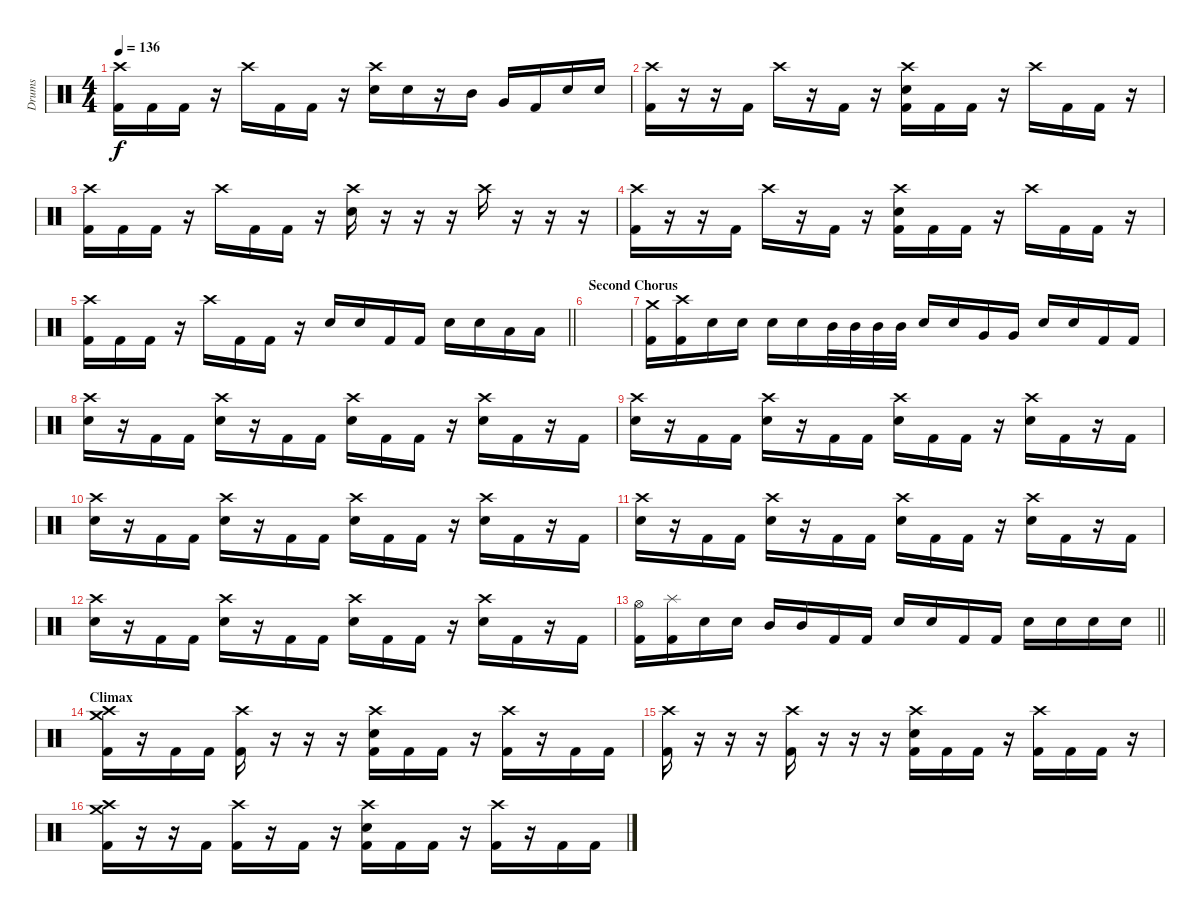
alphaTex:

\track ("Drums" "Drums") {instrument percussion}
\staff {score}
\articulation defaults
\ts (4 4)
\tempo 136
\clef neutral
\ks c
("Crash high (hit)" "Kick (hit) 2").16{dy f} "Kick (hit) 2".16 "Kick (hit) 2".16 r.16 "Crash high (hit)".16 "Kick (hit) 2".16 "Kick (hit) 2".16 r.16 ("Crash high (hit)" "Electric Snare (hit)").16 "Electric Snare (hit)".16 r.16 "Mid Tom (hit)".16 "Very Low Tom (hit)".16 "Kick (hit) 2".16 "Electric Snare (hit)".16 "Electric Snare (hit)".16 |
("Crash high (hit)" "Kick (hit) 2").16 r.16 r.16 "Kick (hit) 2".16 "Crash high (hit)".16 r.16 "Kick (hit) 2".16 r.16 ("Crash high (hit)" "Electric Snare (hit)" "Kick (hit) 2").16 "Kick (hit) 2".16 "Kick (hit) 2".16 r.16 "Crash high (hit)".16 "Kick (hit) 2".16 "Kick (hit) 2".16 r.16 |
("Crash high (hit)" "Kick (hit) 2").16 "Kick (hit) 2".16 "Kick (hit) 2".16 r.16 "Crash high (hit)".16 "Kick (hit) 2".16 "Kick (hit) 2".16 r.16 ("Crash high (hit)" "Electric Snare (hit)").16 r.16 r.16 r.16 "Crash high (hit)".16 r.16 r.16 r.16 |
("Crash high (hit)" "Kick (hit) 2").16 r.16 r.16 "Kick (hit) 2".16 "Crash high (hit)".16 r.16 "Kick (hit) 2".16 r.16 ("Crash high (hit)" "Electric Snare (hit)" "Kick (hit) 2").16 "Kick (hit) 2".16 "Kick (hit) 2".16 r.16 "Crash high (hit)".16 "Kick (hit) 2".16 "Kick (hit) 2".16 r.16 |
\barLineRight lightlight
("Crash high (hit)" "Kick (hit) 2").16 "Kick (hit) 2".16 "Kick (hit) 2".16 r.16 "Crash high (hit)".16 "Kick (hit) 2".16 "Kick (hit) 2".16 r.16 "Electric Snare (hit)".16 "Electric Snare (hit)".16 "Kick (hit) 2".16 "Kick (hit) 2".16 "Electric Snare (hit)".16 "Electric Snare (hit)".16 "Low Floor Tom (hit)".16 "Low Floor Tom (hit)".16 |
\section ("" "Second Chorus")
|
("Crash medium (hit)" "Kick (hit) 2").16 ("Crash high (hit)" "Kick (hit) 2").16 "Electric Snare (hit)".16 "Electric Snare (hit)".16 "Electric Snare (hit)".16 "Electric Snare (hit)".16 "Mid Tom (hit)".32 "Mid Tom (hit)".32 "Mid Tom (hit)".32 "Mid Tom (hit)".32 "Electric Snare (hit)".16 "Electric Snare (hit)".16 "Very Low Tom (hit)".16 "Very Low Tom (hit)".16 "Electric Snare (hit)".16 "Electric Snare (hit)".16 "Kick (hit) 2".16 "Kick (hit) 2".16 |
("Crash high (hit)" "Electric Snare (hit)").16 r.16 "Kick (hit) 2".16 "Kick (hit) 2".16 ("Crash high (hit)" "Electric Snare (hit)").16 r.16 "Kick (hit) 2".16 "Kick (hit) 2".16 ("Crash high (hit)" "Electric Snare (hit)").16 "Kick (hit) 2".16 "Kick (hit) 2".16 r.16 ("Crash high (hit)" "Electric Snare (hit)").16 "Kick (hit) 2".16 r.16 "Kick (hit) 2".16 |
("Crash high (hit)" "Electric Snare (hit)").16 r.16 "Kick (hit) 2".16 "Kick (hit) 2".16 ("Crash high (hit)" "Electric Snare (hit)").16 r.16 "Kick (hit) 2".16 "Kick (hit) 2".16 ("Crash high (hit)" "Electric Snare (hit)").16 "Kick (hit) 2".16 "Kick (hit) 2".16 r.16 ("Crash high (hit)" "Electric Snare (hit)").16 "Kick (hit) 2".16 r.16 "Kick (hit) 2".16 |
("Crash high (hit)" "Electric Snare (hit)").16 r.16 "Kick (hit) 2".16 "Kick (hit) 2".16 ("Crash high (hit)" "Electric Snare (hit)").16 r.16 "Kick (hit) 2".16 "Kick (hit) 2".16 ("Crash high (hit)" "Electric Snare (hit)").16 "Kick (hit) 2".16 "Kick (hit) 2".16 r.16 ("Crash high (hit)" "Electric Snare (hit)").16 "Kick (hit) 2".16 r.16 "Kick (hit) 2".16 |
("Crash high (hit)" "Electric Snare (hit)").16 r.16 "Kick (hit) 2".16 "Kick (hit) 2".16 ("Crash high (hit)" "Electric Snare (hit)").16 r.16 "Kick (hit) 2".16 "Kick (hit) 2".16 ("Crash high (hit)" "Electric Snare (hit)").16 "Kick (hit) 2".16 "Kick (hit) 2".16 r.16 ("Crash high (hit)" "Electric Snare (hit)").16 "Kick (hit) 2".16 r.16 "Kick (hit) 2".16 |
("Crash high (hit)" "Electric Snare (hit)").16 r.16 "Kick (hit) 2".16 "Kick (hit) 2".16 ("Crash high (hit)" "Electric Snare (hit)").16 r.16 "Kick (hit) 2".16 "Kick (hit) 2".16 ("Crash high (hit)" "Electric Snare (hit)").16 "Kick (hit) 2".16 "Kick (hit) 2".16 r.16 ("Crash high (hit)" "Electric Snare (hit)").16 "Kick (hit) 2".16 r.16 "Kick (hit) 2".16 |
\barLineRight lightlight
("Hi-Hat (open)" "Kick (hit) 2").16 ("Splash (hit)" "Kick (hit) 2").16 "Electric Snare (hit)".16 "Electric Snare (hit)".16 "Mid Tom (hit)".16 "Mid Tom (hit)".16 "Kick (hit) 2".16 "Kick (hit) 2".16 "Electric Snare (hit)".16 "Electric Snare (hit)".16 "Kick (hit) 2".16 "Kick (hit) 2".16 "Electric Snare (hit)".16 "Electric Snare (hit)".16 "Electric Snare (hit)".16 "Electric Snare (hit)".16 |
\section ("" "Climax")
("Crash medium (hit)" "Crash high (hit)" "Kick (hit) 2").16 r.16 "Kick (hit) 2".16 "Kick (hit) 2".16 ("Crash high (hit)" "Kick (hit) 2").16 r.16 r.16 r.16 ("Crash high (hit)" "Electric Snare (hit)" "Kick (hit) 2").16 "Kick (hit) 2".16 "Kick (hit) 2".16 r.16 ("Crash high (hit)" "Kick (hit) 2").16 r.16 "Kick (hit) 2".16 "Kick (hit) 2".16 |
("Crash high (hit)" "Kick (hit) 2").16 r.16 r.16 r.16 ("Crash high (hit)" "Kick (hit) 2").16 r.16 r.16 r.16 ("Crash high (hit)" "Electric Snare (hit)" "Kick (hit) 2").16 "Kick (hit) 2".16 "Kick (hit) 2".16 r.16 ("Crash high (hit)" "Kick (hit) 2").16 "Kick (hit) 2".16 "Kick (hit) 2".16 r.16 |
("Crash medium (hit)" "Crash high (hit)" "Kick (hit) 2").16 r.16 r.16 "Kick (hit) 2".16 ("Crash high (hit)" "Kick (hit) 2").16 r.16 "Kick (hit) 2".16 r.16 ("Crash high (hit)" "Electric Snare (hit)" "Kick (hit) 2").16 "Kick (hit) 2".16 "Kick (hit) 2".16 r.16 ("Crash high (hit)" "Kick (hit) 2").16 r.16 "Kick (hit) 2".16 "Kick (hit) 2".16
